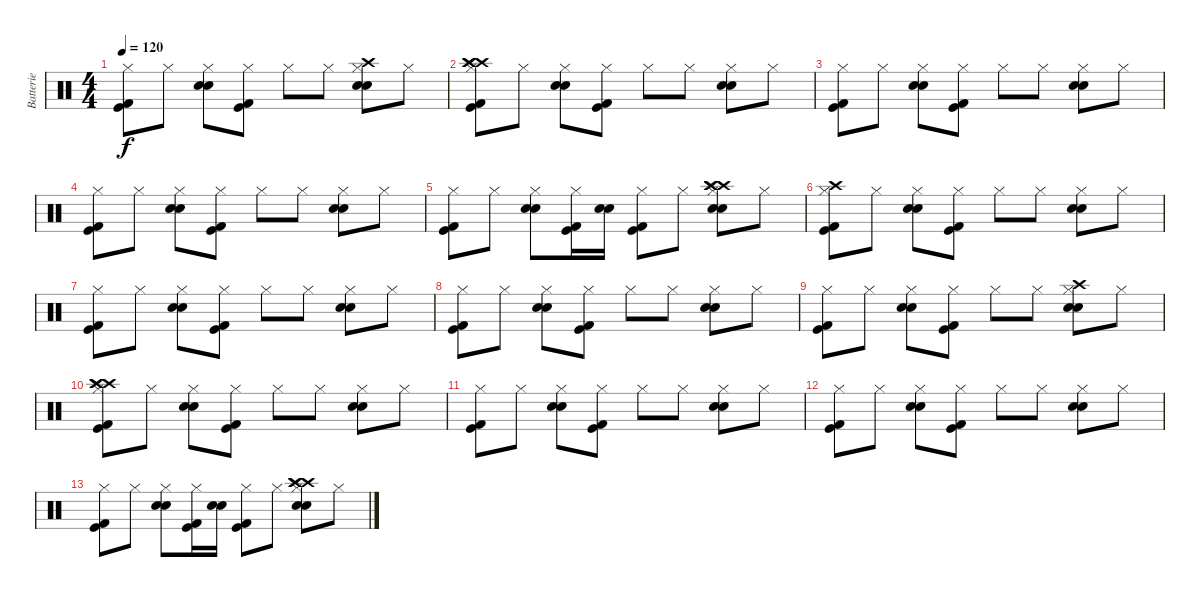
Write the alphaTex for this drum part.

\track ("Batterie" "Batterie") {instrument percussion}
\staff {score}
\articulation defaults
\ts (4 4)
\tempo 120
\clef neutral
\ks c
("Hi-Hat (closed)" "Kick (hit)" "Kick (hit) 2").8{dy f} "Hi-Hat (closed)".8 ("Hi-Hat (closed)" "Electric Snare (hit)" "Electric Snare (hit)").8 ("Hi-Hat (closed)" "Kick (hit)" "Kick (hit) 2").8 "Hi-Hat (closed)".8 "Hi-Hat (closed)".8 ("Hi-Hat (closed)" "Electric Snare (hit)" "Electric Snare (hit)" "Crash high (hit)").8 "Hi-Hat (closed)".8 |
("Crash high (hit)" "Hi-Hat (closed)" "Crash high (hit)" "Kick (hit)" "Kick (hit) 2" "Crash high (hit)").8 "Hi-Hat (closed)".8 ("Hi-Hat (closed)" "Electric Snare (hit)" "Electric Snare (hit)").8 ("Hi-Hat (closed)" "Kick (hit)" "Kick (hit) 2").8 "Hi-Hat (closed)".8 "Hi-Hat (closed)".8 ("Hi-Hat (closed)" "Electric Snare (hit)" "Electric Snare (hit)").8 "Hi-Hat (closed)".8 |
("Hi-Hat (closed)" "Kick (hit)" "Kick (hit) 2").8 "Hi-Hat (closed)".8 ("Hi-Hat (closed)" "Electric Snare (hit)" "Electric Snare (hit)").8 ("Hi-Hat (closed)" "Kick (hit)" "Kick (hit) 2").8 "Hi-Hat (closed)".8 "Hi-Hat (closed)".8 ("Hi-Hat (closed)" "Electric Snare (hit)" "Electric Snare (hit)").8 "Hi-Hat (closed)".8 |
("Hi-Hat (closed)" "Kick (hit)" "Kick (hit) 2").8 "Hi-Hat (closed)".8 ("Hi-Hat (closed)" "Electric Snare (hit)" "Electric Snare (hit)").8 ("Hi-Hat (closed)" "Kick (hit)" "Kick (hit) 2").8 "Hi-Hat (closed)".8 "Hi-Hat (closed)".8 ("Hi-Hat (closed)" "Electric Snare (hit)" "Electric Snare (hit)").8 "Hi-Hat (closed)".8 |
("Hi-Hat (closed)" "Kick (hit)" "Kick (hit) 2").8 "Hi-Hat (closed)".8 ("Hi-Hat (closed)" "Electric Snare (hit)" "Electric Snare (hit)").8 ("Hi-Hat (closed)" "Kick (hit)" "Kick (hit) 2").16 ("Electric Snare (hit)" "Electric Snare (hit)").16 ("Hi-Hat (closed)" "Kick (hit)" "Kick (hit) 2").8 "Hi-Hat (closed)".8 ("Crash high (hit)" "Hi-Hat (closed)" "Electric Snare (hit)" "Electric Snare (hit)" "Crash high (hit)" "Crash high (hit)").8 "Hi-Hat (closed)".8 |
("Crash high (hit)" "Hi-Hat (closed)" "Kick (hit)" "Kick (hit) 2").8 "Hi-Hat (closed)".8 ("Hi-Hat (closed)" "Electric Snare (hit)" "Electric Snare (hit)").8 ("Hi-Hat (closed)" "Kick (hit)" "Kick (hit) 2").8 "Hi-Hat (closed)".8 "Hi-Hat (closed)".8 ("Hi-Hat (closed)" "Electric Snare (hit)" "Electric Snare (hit)").8 "Hi-Hat (closed)".8 |
("Hi-Hat (closed)" "Kick (hit)" "Kick (hit) 2").8 "Hi-Hat (closed)".8 ("Hi-Hat (closed)" "Electric Snare (hit)" "Electric Snare (hit)").8 ("Hi-Hat (closed)" "Kick (hit)" "Kick (hit) 2").8 "Hi-Hat (closed)".8 "Hi-Hat (closed)".8 ("Hi-Hat (closed)" "Electric Snare (hit)" "Electric Snare (hit)").8 "Hi-Hat (closed)".8 |
("Hi-Hat (closed)" "Kick (hit)" "Kick (hit) 2").8 "Hi-Hat (closed)".8 ("Hi-Hat (closed)" "Electric Snare (hit)" "Electric Snare (hit)").8 ("Hi-Hat (closed)" "Kick (hit)" "Kick (hit) 2").8 "Hi-Hat (closed)".8 "Hi-Hat (closed)".8 ("Hi-Hat (closed)" "Electric Snare (hit)" "Electric Snare (hit)").8 "Hi-Hat (closed)".8 |
("Hi-Hat (closed)" "Kick (hit)" "Kick (hit) 2").8 "Hi-Hat (closed)".8 ("Hi-Hat (closed)" "Electric Snare (hit)" "Electric Snare (hit)").8 ("Hi-Hat (closed)" "Kick (hit)" "Kick (hit) 2").8 "Hi-Hat (closed)".8 "Hi-Hat (closed)".8 ("Hi-Hat (closed)" "Electric Snare (hit)" "Electric Snare (hit)" "Crash high (hit)").8 "Hi-Hat (closed)".8 |
("Crash high (hit)" "Hi-Hat (closed)" "Crash high (hit)" "Kick (hit)" "Kick (hit) 2" "Crash high (hit)").8 "Hi-Hat (closed)".8 ("Hi-Hat (closed)" "Electric Snare (hit)" "Electric Snare (hit)").8 ("Hi-Hat (closed)" "Kick (hit)" "Kick (hit) 2").8 "Hi-Hat (closed)".8 "Hi-Hat (closed)".8 ("Hi-Hat (closed)" "Electric Snare (hit)" "Electric Snare (hit)").8 "Hi-Hat (closed)".8 |
("Hi-Hat (closed)" "Kick (hit)" "Kick (hit) 2").8 "Hi-Hat (closed)".8 ("Hi-Hat (closed)" "Electric Snare (hit)" "Electric Snare (hit)").8 ("Hi-Hat (closed)" "Kick (hit)" "Kick (hit) 2").8 "Hi-Hat (closed)".8 "Hi-Hat (closed)".8 ("Hi-Hat (closed)" "Electric Snare (hit)" "Electric Snare (hit)").8 "Hi-Hat (closed)".8 |
("Hi-Hat (closed)" "Kick (hit)" "Kick (hit) 2").8 "Hi-Hat (closed)".8 ("Hi-Hat (closed)" "Electric Snare (hit)" "Electric Snare (hit)").8 ("Hi-Hat (closed)" "Kick (hit)" "Kick (hit) 2").8 "Hi-Hat (closed)".8 "Hi-Hat (closed)".8 ("Hi-Hat (closed)" "Electric Snare (hit)" "Electric Snare (hit)").8 "Hi-Hat (closed)".8 |
("Hi-Hat (closed)" "Kick (hit)" "Kick (hit) 2").8 "Hi-Hat (closed)".8 ("Hi-Hat (closed)" "Electric Snare (hit)" "Electric Snare (hit)").8 ("Hi-Hat (closed)" "Kick (hit)" "Kick (hit) 2").16 ("Electric Snare (hit)" "Electric Snare (hit)").16 ("Hi-Hat (closed)" "Kick (hit)" "Kick (hit) 2").8 "Hi-Hat (closed)".8 ("Crash high (hit)" "Hi-Hat (closed)" "Electric Snare (hit)" "Electric Snare (hit)" "Crash high (hit)" "Crash high (hit)").8 "Hi-Hat (closed)".8
